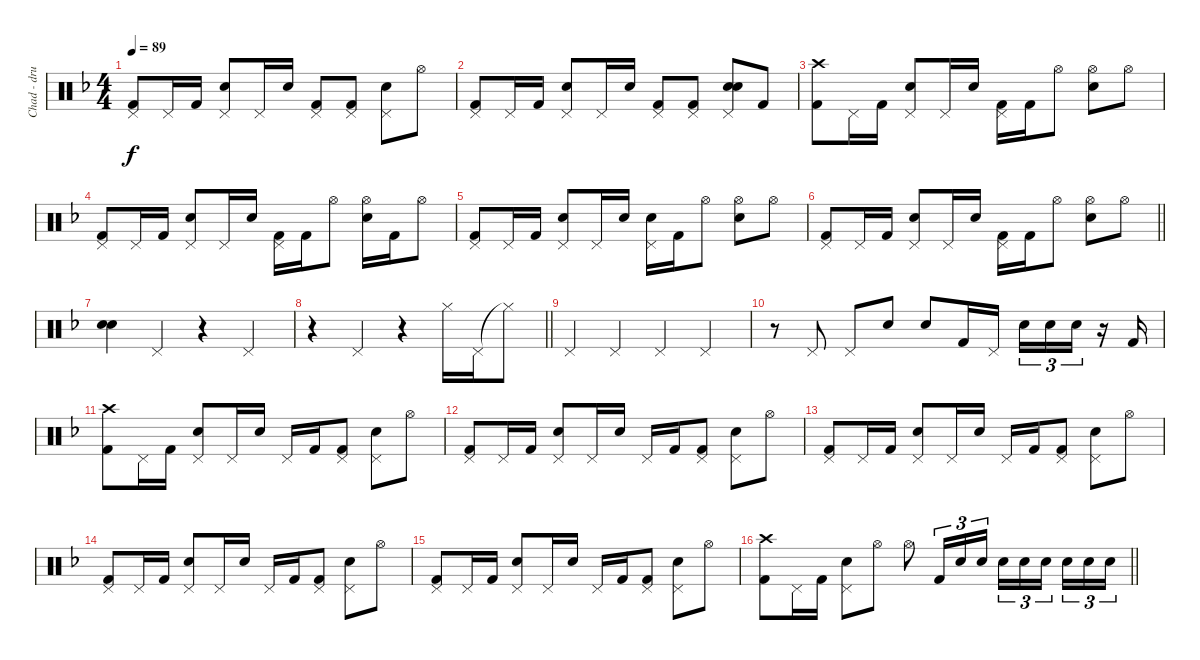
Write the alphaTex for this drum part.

\track ("Chad - drums" "Chad - dru") {instrument percussion}
\staff {score}
\articulation defaults
\ts (4 4)
\tempo 89
\clef neutral
\ks f
("Pedal Hi-Hat (hit)" "Kick (hit) 2").8{dy f} "Pedal Hi-Hat (hit)".16 "Kick (hit) 2".16 ("Pedal Hi-Hat (hit)" "Electric Snare (hit)").8 "Pedal Hi-Hat (hit)".16 "Electric Snare (hit)".16 ("Pedal Hi-Hat (hit)" "Kick (hit) 2").8 ("Pedal Hi-Hat (hit)" "Kick (hit) 2").8 ("Pedal Hi-Hat (hit)" "Electric Snare (hit)").8 "Hi-Hat (open)".8 |
("Pedal Hi-Hat (hit)" "Kick (hit) 2").8 "Pedal Hi-Hat (hit)".16 "Kick (hit) 2".16 ("Pedal Hi-Hat (hit)" "Electric Snare (hit)").8 "Pedal Hi-Hat (hit)".16 "Electric Snare (hit)".16 ("Pedal Hi-Hat (hit)" "Kick (hit) 2").8 ("Pedal Hi-Hat (hit)" "Kick (hit) 2").8 ("Pedal Hi-Hat (hit)" "Electric Snare (hit)" "Electric Snare (hit)").8 "Kick (hit) 2".8 |
("Crash high (hit)" "Kick (hit) 2").8 "Pedal Hi-Hat (hit)".16 "Kick (hit) 2".16 ("Pedal Hi-Hat (hit)" "Electric Snare (hit)").8 "Pedal Hi-Hat (hit)".16 "Electric Snare (hit)".16 ("Pedal Hi-Hat (hit)" "Kick (hit) 2").16 "Kick (hit) 2".16 "Hi-Hat (open)".8 ("Hi-Hat (open)" "Electric Snare (hit)").8 "Hi-Hat (open)".8 |
("Pedal Hi-Hat (hit)" "Kick (hit) 2").8 "Pedal Hi-Hat (hit)".16 "Kick (hit) 2".16 ("Pedal Hi-Hat (hit)" "Electric Snare (hit)").8 "Pedal Hi-Hat (hit)".16 "Electric Snare (hit)".16 ("Pedal Hi-Hat (hit)" "Kick (hit) 2").16 "Kick (hit) 2".16 "Hi-Hat (open)".8 ("Hi-Hat (open)" "Electric Snare (hit)").16 "Kick (hit) 2".16 "Hi-Hat (open)".8 |
("Pedal Hi-Hat (hit)" "Kick (hit) 2").8 "Pedal Hi-Hat (hit)".16 "Kick (hit) 2".16 ("Pedal Hi-Hat (hit)" "Electric Snare (hit)").8 "Pedal Hi-Hat (hit)".16 "Electric Snare (hit)".16 ("Pedal Hi-Hat (hit)" "Electric Snare (hit)").16 "Kick (hit) 2".16 "Hi-Hat (open)".8 ("Hi-Hat (open)" "Electric Snare (hit)").8 "Hi-Hat (open)".8 |
\barLineRight lightlight
("Pedal Hi-Hat (hit)" "Kick (hit) 2").8 "Pedal Hi-Hat (hit)".16 "Kick (hit) 2".16 ("Pedal Hi-Hat (hit)" "Electric Snare (hit)").8 "Pedal Hi-Hat (hit)".16 "Electric Snare (hit)".16 ("Pedal Hi-Hat (hit)" "Kick (hit) 2").16 "Kick (hit) 2".16 "Hi-Hat (open)".8 ("Hi-Hat (open)" "Electric Snare (hit)").8 "Hi-Hat (open)".8 |
("Electric Snare (hit)" "Electric Snare (hit)").4 "Pedal Hi-Hat (hit)".4 r.4 "Pedal Hi-Hat (hit)".4 |
\barLineRight lightlight
r.4 "Pedal Hi-Hat (hit)".4 r.4 "Hi-Hat (closed)".16 "Pedal Hi-Hat (hit)".16 "Hi-Hat (closed)"{t}.8 |
"Pedal Hi-Hat (hit)".4 "Pedal Hi-Hat (hit)".4 "Pedal Hi-Hat (hit)".4 "Pedal Hi-Hat (hit)".4 |
r.8 "Pedal Hi-Hat (hit)".8 "Pedal Hi-Hat (hit)".8 "Electric Snare (hit)".8 "Electric Snare (hit)".8 "Kick (hit) 2".16 "Pedal Hi-Hat (hit)".16 "Electric Snare (hit)".16{tu (3 2)} "Electric Snare (hit)".16{tu (3 2)} "Electric Snare (hit)".16{tu (3 2)} r.16 "Kick (hit) 2".16 |
("Crash high (hit)" "Kick (hit) 2").8 "Pedal Hi-Hat (hit)".16 "Kick (hit) 2".16 ("Pedal Hi-Hat (hit)" "Electric Snare (hit)").8 "Pedal Hi-Hat (hit)".16 "Electric Snare (hit)".16 "Pedal Hi-Hat (hit)".16 "Kick (hit) 2".16 ("Pedal Hi-Hat (hit)" "Kick (hit) 2").8 ("Pedal Hi-Hat (hit)" "Electric Snare (hit)").8 "Hi-Hat (open)".8 |
("Pedal Hi-Hat (hit)" "Kick (hit) 2").8 "Pedal Hi-Hat (hit)".16 "Kick (hit) 2".16 ("Pedal Hi-Hat (hit)" "Electric Snare (hit)").8 "Pedal Hi-Hat (hit)".16 "Electric Snare (hit)".16 "Pedal Hi-Hat (hit)".16 "Kick (hit) 2".16 ("Pedal Hi-Hat (hit)" "Kick (hit) 2").8 ("Pedal Hi-Hat (hit)" "Electric Snare (hit)").8 "Hi-Hat (open)".8 |
("Pedal Hi-Hat (hit)" "Kick (hit) 2").8 "Pedal Hi-Hat (hit)".16 "Kick (hit) 2".16 ("Pedal Hi-Hat (hit)" "Electric Snare (hit)").8 "Pedal Hi-Hat (hit)".16 "Electric Snare (hit)".16 "Pedal Hi-Hat (hit)".16 "Kick (hit) 2".16 ("Pedal Hi-Hat (hit)" "Kick (hit) 2").8 ("Pedal Hi-Hat (hit)" "Electric Snare (hit)").8 "Hi-Hat (open)".8 |
("Pedal Hi-Hat (hit)" "Kick (hit) 2").8 "Pedal Hi-Hat (hit)".16 "Kick (hit) 2".16 ("Pedal Hi-Hat (hit)" "Electric Snare (hit)").8 "Pedal Hi-Hat (hit)".16 "Electric Snare (hit)".16 "Pedal Hi-Hat (hit)".16 "Kick (hit) 2".16 ("Pedal Hi-Hat (hit)" "Kick (hit) 2").8 ("Pedal Hi-Hat (hit)" "Electric Snare (hit)").8 "Hi-Hat (open)".8 |
("Pedal Hi-Hat (hit)" "Kick (hit) 2").8 "Pedal Hi-Hat (hit)".16 "Kick (hit) 2".16 ("Pedal Hi-Hat (hit)" "Electric Snare (hit)").8 "Pedal Hi-Hat (hit)".16 "Electric Snare (hit)".16 "Pedal Hi-Hat (hit)".16 "Kick (hit) 2".16 ("Pedal Hi-Hat (hit)" "Kick (hit) 2").8 ("Pedal Hi-Hat (hit)" "Electric Snare (hit)").8 "Hi-Hat (open)".8 |
\barLineRight lightlight
("Crash high (hit)" "Kick (hit) 2").8 "Pedal Hi-Hat (hit)".16 "Kick (hit) 2".16 ("Pedal Hi-Hat (hit)" "Electric Snare (hit)").8 "Hi-Hat (open)".8 "Hi-Hat (open)".8 "Kick (hit) 2".16{tu (3 2)} "Electric Snare (hit)".16{tu (3 2)} "Electric Snare (hit)".16{tu (3 2)} "Electric Snare (hit)".16{tu (3 2)} "Electric Snare (hit)".16{tu (3 2)} "Electric Snare (hit)".16{tu (3 2) beam splitsecondary} "Electric Snare (hit)".16{tu (3 2)} "Electric Snare (hit)".16{tu (3 2)} "Electric Snare (hit)".16{tu (3 2)}
